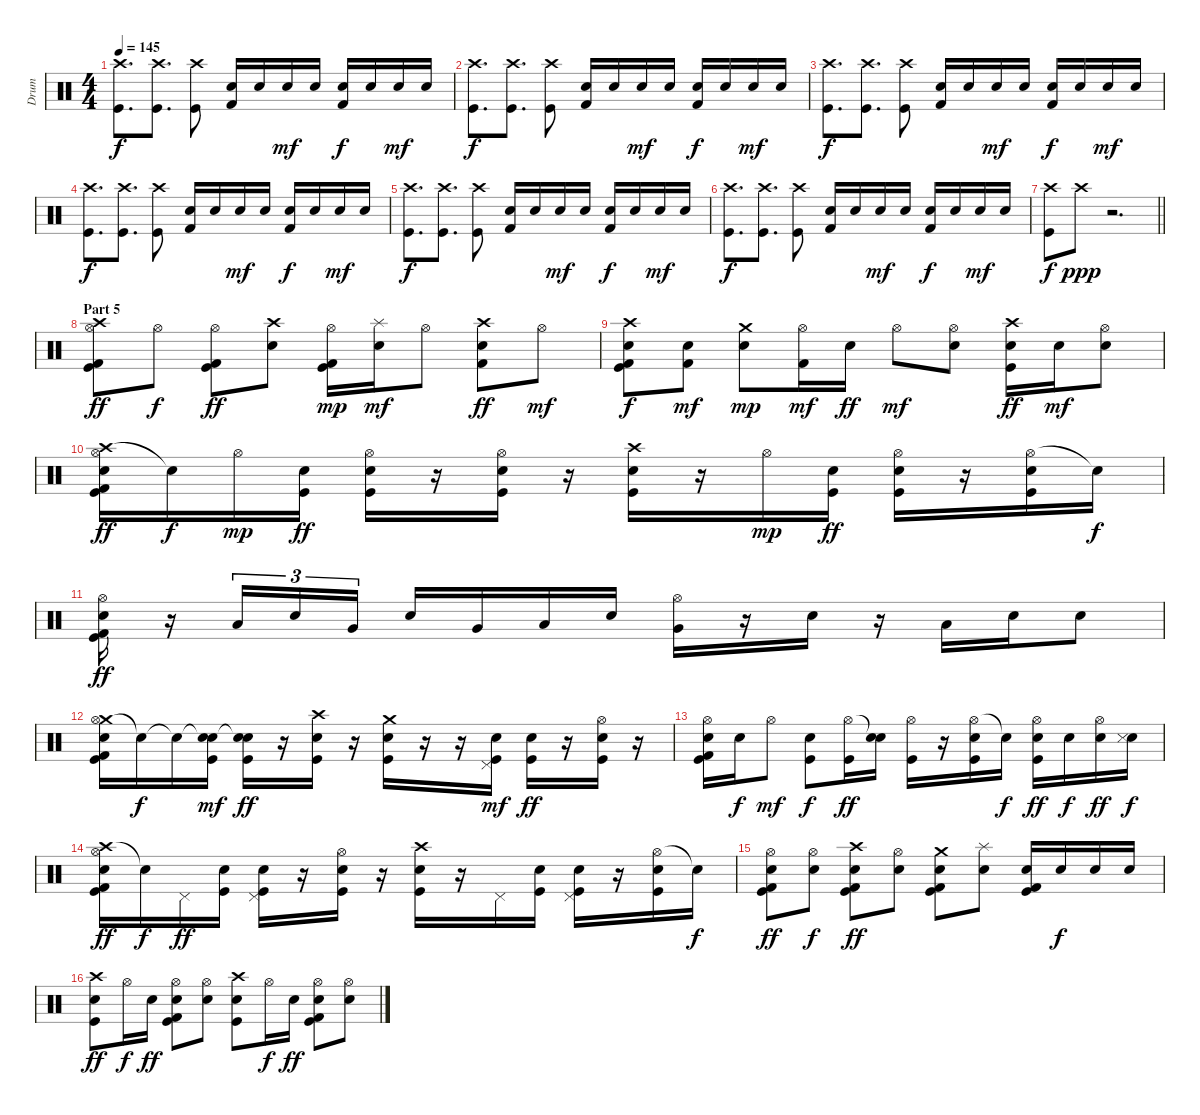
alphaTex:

\track ("Drum" "Drum") {instrument percussion}
\staff {score}
\articulation defaults
\ts (4 4)
\tempo 145
\clef neutral
\ks c
("Crash high (hit)" "Kick (hit)").8{d dy f} ("Crash high (hit)" "Kick (hit)").8{d} ("Crash high (hit)" "Kick (hit)").8 ("Electric Snare (hit)" "Kick (hit) 2").16 "Electric Snare (hit)".16 "Electric Snare (hit)".16{dy mf} "Snare (hit) 2".16 ("Electric Snare (hit)" "Kick (hit) 2").16{dy f} "Electric Snare (hit)".16 "Electric Snare (hit)".16{dy mf} "Snare (hit) 2".16 |
("Crash high (hit)" "Kick (hit)").8{d dy f} ("Crash high (hit)" "Kick (hit)").8{d} ("Crash high (hit)" "Kick (hit)").8 ("Electric Snare (hit)" "Kick (hit) 2").16 "Electric Snare (hit)".16 "Electric Snare (hit)".16{dy mf} "Snare (hit) 2".16 ("Electric Snare (hit)" "Kick (hit) 2").16{dy f} "Electric Snare (hit)".16 "Electric Snare (hit)".16{dy mf} "Snare (hit) 2".16 |
("Crash high (hit)" "Kick (hit)").8{d dy f} ("Crash high (hit)" "Kick (hit)").8{d} ("Crash high (hit)" "Kick (hit)").8 ("Electric Snare (hit)" "Kick (hit) 2").16 "Electric Snare (hit)".16 "Snare (hit) 2".16{dy mf} "Electric Snare (hit)".16 ("Electric Snare (hit)" "Kick (hit) 2").16{dy f} "Electric Snare (hit)".16 "Snare (hit) 2".16{dy mf} "Electric Snare (hit)".16 |
("Crash high (hit)" "Kick (hit)").8{d dy f} ("Crash high (hit)" "Kick (hit)").8{d} ("Crash high (hit)" "Kick (hit)").8 ("Electric Snare (hit)" "Kick (hit) 2").16 "Electric Snare (hit)".16 "Electric Snare (hit)".16{dy mf} "Snare (hit) 2".16 ("Electric Snare (hit)" "Kick (hit) 2").16{dy f} "Electric Snare (hit)".16 "Electric Snare (hit)".16{dy mf} "Snare (hit) 2".16 |
("Crash high (hit)" "Kick (hit)").8{d dy f} ("Crash high (hit)" "Kick (hit)").8{d} ("Crash high (hit)" "Kick (hit)").8 ("Electric Snare (hit)" "Kick (hit) 2").16 "Electric Snare (hit)".16 "Electric Snare (hit)".16{dy mf} "Electric Snare (hit)".16 ("Electric Snare (hit)" "Kick (hit) 2").16{dy f} "Electric Snare (hit)".16 "Electric Snare (hit)".16{dy mf} "Electric Snare (hit)".16 |
("Crash high (hit)" "Kick (hit)").8{d dy f} ("Crash high (hit)" "Kick (hit)").8{d} ("Crash high (hit)" "Kick (hit)").8 ("Electric Snare (hit)" "Kick (hit) 2").16 "Electric Snare (hit)".16 "Electric Snare (hit)".16{dy mf} "Snare (hit) 2".16 ("Electric Snare (hit)" "Kick (hit) 2").16{dy f} "Electric Snare (hit)".16 "Electric Snare (hit)".16{dy mf} "Snare (hit) 2".16 |
\barLineRight lightlight
("Crash high (hit)" "Kick (hit)").8{dy f} "Crash high (hit)".8{dy ppp} r.2{d} |
\section ("" "Part 5")
("Crash high (hit)" "Hi-Hat (open)" "Kick (hit) 2" "Kick (hit)").8{dy ff} "Hi-Hat (open)".8{dy f} ("Hi-Hat (open)" "Kick (hit) 2" "Kick (hit)").8{dy ff} ("Crash high (hit)" "Electric Snare (hit)").8 ("Hi-Hat (open)" "Kick (hit) 2" "Kick (hit)").16{dy mp} ("Splash (hit)" "Electric Snare (hit)").16{dy mf} "Hi-Hat (open)".8 ("Crash high (hit)" "Electric Snare (hit)" "Kick (hit) 2").8{dy ff} "Hi-Hat (open)".8{dy mf} |
("Crash high (hit)" "Snare (hit) 2" "Kick (hit) 2" "Kick (hit)").8{dy f} ("Electric Snare (hit)" "Kick (hit) 2").8{dy mf} ("Crash medium (hit)" "Electric Snare (hit)").8{dy mp} ("Hi-Hat (open)" "Kick (hit) 2").16{dy mf} "Electric Snare (hit)".16{dy ff} "Hi-Hat (open)".8{dy mf} ("Hi-Hat (open)" "Electric Snare (hit)").8 ("Crash high (hit)" "Electric Snare (hit)" "Kick (hit)").16{dy ff} "Electric Snare (hit)".16{dy mf} ("Hi-Hat (open)" "Electric Snare (hit)").8 |
("Crash high (hit)" "Hi-Hat (open)" "Electric Snare (hit)" "Kick (hit) 2" "Kick (hit)").16{dy ff} "Snare (hit)"{t}.16{dy f} "Hi-Hat (open)".16{dy mp} ("Snare (hit) 2" "Kick (hit)").16{dy ff} ("Hi-Hat (open)" "Snare (hit) 2" "Kick (hit)").16 r.16 ("Hi-Hat (open)" "Electric Snare (hit)" "Kick (hit)").16 r.16 ("Crash high (hit)" "Electric Snare (hit)" "Kick (hit)").16 r.16 "Hi-Hat (open)".16{dy mp} ("Snare (hit) 2" "Kick (hit)").16{dy ff} ("Hi-Hat (open)" "Electric Snare (hit)" "Kick (hit)").16 r.16 ("Hi-Hat (open)" "Electric Snare (hit)" "Kick (hit)").16 "Snare (hit)"{t}.16{dy f} |
("Hi-Hat (open)" "Electric Snare (hit)" "Kick (hit) 2" "Kick (hit)").16{dy ff} r.16 "Low Floor Tom (hit)".16{tu (3 2)} "Electric Snare (hit)".16{tu (3 2)} "Very Low Tom (hit)".16{tu (3 2)} "Electric Snare (hit)".16 "Very Low Tom (hit)".16 "Low Floor Tom (hit)".16 "Electric Snare (hit)".16 ("Hi-Hat (open)" "Very Low Tom (hit)").16 r.16 "Electric Snare (hit)".16 r.16 "Low Floor Tom (hit)".16 "Electric Snare (hit)".16 "Electric Snare (hit)".8 |
("Crash medium (hit)" "Hi-Hat (open)" "Electric Snare (hit)" "Kick (hit) 2" "Kick (hit)").16 "Snare (hit)"{t}.16{dy f} "Snare (hit)"{t}.16 ("Snare (hit)"{t} "Snare (hit) 2" "Kick (hit)").16{dy mf} ("Snare (hit)"{t} "Snare (hit) 2" "Kick (hit)").16{dy ff} r.16 ("Crash high (hit)" "Electric Snare (hit)" "Kick (hit)").16 r.16 ("Crash medium (hit)" "Electric Snare (hit)" "Kick (hit)").16 r.16 r.16 ("Pedal Hi-Hat (hit)" "Electric Snare (hit)" "Kick (hit)").16{dy mf} ("Electric Snare (hit)" "Kick (hit)").16{dy ff} r.16 ("Hi-Hat (open)" "Electric Snare (hit)" "Kick (hit)").16 r.16 |
("Hi-Hat (open)" "Electric Snare (hit)" "Kick (hit) 2" "Kick (hit)").16 "Electric Snare (hit)".16{dy f} "Hi-Hat (open)".8{dy mf} ("Electric Snare (hit)" "Kick (hit)").8{dy f} ("Hi-Hat (open)" "Kick (hit)").16{dy ff} ("Snare (hit)"{t} "Electric Snare (hit)").16 ("Hi-Hat (open)" "Kick (hit)").16 r.16 ("Hi-Hat (open)" "Electric Snare (hit)" "Kick (hit)").16 "Snare (hit)"{t}.16{dy f} ("Hi-Hat (open)" "Electric Snare (hit)" "Kick (hit)").16{dy ff} "Electric Snare (hit)".16{dy f} ("Hi-Hat (open)" "Electric Snare (hit)").16{dy ff} ("Electric Snare (hit)" "Metronome (hit)").16{dy f} |
("Crash high (hit)" "Hi-Hat (open)" "Electric Snare (hit)" "Kick (hit) 2" "Kick (hit)").16{dy ff} "Snare (hit)"{t}.16{dy f} "Pedal Hi-Hat (hit)".16{dy ff} ("Snare (hit) 2" "Kick (hit)").16 ("Pedal Hi-Hat (hit)" "Snare (hit) 2" "Kick (hit)").16 r.16 ("Hi-Hat (open)" "Electric Snare (hit)" "Kick (hit)").16 r.16 ("Crash high (hit)" "Electric Snare (hit)" "Kick (hit)").16 r.16 "Pedal Hi-Hat (hit)".16 ("Snare (hit) 2" "Kick (hit)").16 ("Pedal Hi-Hat (hit)" "Electric Snare (hit)" "Kick (hit)").16 r.16 ("Hi-Hat (open)" "Electric Snare (hit)" "Kick (hit)").16 "Snare (hit)"{t}.16{dy f} |
("Hi-Hat (open)" "Electric Snare (hit)" "Kick (hit) 2" "Kick (hit)").8{dy ff} ("Hi-Hat (open)" "Electric Snare (hit)").8{dy f} ("Crash high (hit)" "Electric Snare (hit)" "Kick (hit) 2" "Kick (hit)").8{dy ff} ("Hi-Hat (open)" "Electric Snare (hit)").8 ("Crash medium (hit)" "Electric Snare (hit)" "Kick (hit) 2" "Kick (hit)").8 ("Splash (hit)" "Electric Snare (hit)").8 ("Electric Snare (hit)" "Kick (hit) 2" "Kick (hit)").16 "Electric Snare (hit)".16{dy f} "Electric Snare (hit)".16 "Snare (hit) 2".16 |
("Crash high (hit)" "Electric Snare (hit)" "Kick (hit)").8{dy ff} "Hi-Hat (open)".16{dy f} "Electric Snare (hit)".16{dy ff} ("Hi-Hat (open)" "Electric Snare (hit)" "Kick (hit) 2" "Kick (hit)").8 ("Hi-Hat (open)" "Electric Snare (hit)").8 ("Crash high (hit)" "Electric Snare (hit)" "Kick (hit)").8 "Hi-Hat (open)".16{dy f} "Electric Snare (hit)".16{dy ff} ("Hi-Hat (open)" "Electric Snare (hit)" "Kick (hit) 2" "Kick (hit)").8 ("Hi-Hat (open)" "Electric Snare (hit)").8
